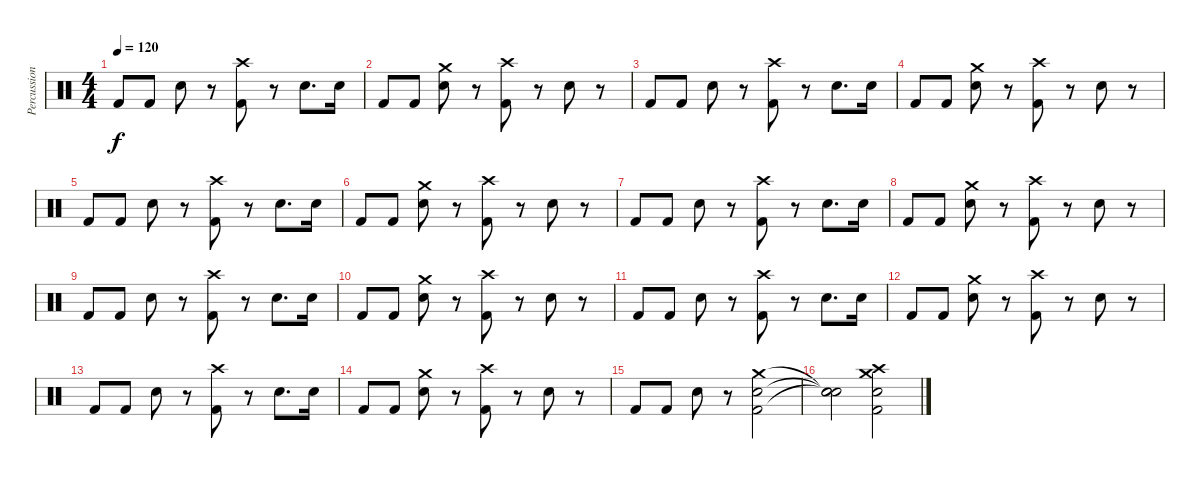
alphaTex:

\track ("Percussions" "Percussion") {instrument percussion}
\staff {score}
\articulation defaults
\ts (4 4)
\tempo 120
\clef neutral
\ks c "Kick (hit) 2".8{dy f} "Kick (hit) 2".8 "Electric Snare (hit)".8
r.8 ("Crash high (hit)" "Kick (hit) 2").8 r.8 "Electric Snare (hit)".8{d} "Electric Snare (hit)".16 |
"Kick (hit) 2".8 "Kick (hit) 2".8 ("Crash medium (hit)" "Electric Snare (hit)").8 r.8 ("Crash high (hit)" "Kick (hit) 2").8 r.8 "Electric Snare (hit)".8 r.8 |
"Kick (hit) 2".8 "Kick (hit) 2".8 "Electric Snare (hit)".8 r.8 ("Crash high (hit)" "Kick (hit) 2").8 r.8 "Electric Snare (hit)".8{d} "Electric Snare (hit)".16 |
"Kick (hit) 2".8 "Kick (hit) 2".8 ("Crash medium (hit)" "Electric Snare (hit)").8 r.8 ("Crash high (hit)" "Kick (hit) 2").8 r.8 "Electric Snare (hit)".8 r.8 |
"Kick (hit) 2".8 "Kick (hit) 2".8 "Electric Snare (hit)".8 r.8 ("Crash high (hit)" "Kick (hit) 2").8 r.8 "Electric Snare (hit)".8{d} "Electric Snare (hit)".16 |
"Kick (hit) 2".8 "Kick (hit) 2".8 ("Crash medium (hit)" "Electric Snare (hit)").8 r.8 ("Crash high (hit)" "Kick (hit) 2").8 r.8 "Electric Snare (hit)".8 r.8 |
"Kick (hit) 2".8 "Kick (hit) 2".8 "Electric Snare (hit)".8 r.8 ("Crash high (hit)" "Kick (hit) 2").8 r.8 "Electric Snare (hit)".8{d} "Electric Snare (hit)".16 |
"Kick (hit) 2".8 "Kick (hit) 2".8 ("Crash medium (hit)" "Electric Snare (hit)").8 r.8 ("Crash high (hit)" "Kick (hit) 2").8 r.8 "Electric Snare (hit)".8 r.8 |
"Kick (hit) 2".8 "Kick (hit) 2".8 "Electric Snare (hit)".8 r.8 ("Crash high (hit)" "Kick (hit) 2").8 r.8 "Electric Snare (hit)".8{d} "Electric Snare (hit)".16 |
"Kick (hit) 2".8 "Kick (hit) 2".8 ("Crash medium (hit)" "Electric Snare (hit)").8 r.8 ("Crash high (hit)" "Kick (hit) 2").8 r.8 "Electric Snare (hit)".8 r.8 |
"Kick (hit) 2".8 "Kick (hit) 2".8 "Electric Snare (hit)".8 r.8 ("Crash high (hit)" "Kick (hit) 2").8 r.8 "Electric Snare (hit)".8{d} "Electric Snare (hit)".16 |
"Kick (hit) 2".8 "Kick (hit) 2".8 ("Crash medium (hit)" "Electric Snare (hit)").8 r.8 ("Crash high (hit)" "Kick (hit) 2").8 r.8 "Electric Snare (hit)".8 r.8 |
"Kick (hit) 2".8 "Kick (hit) 2".8 "Electric Snare (hit)".8 r.8 ("Crash high (hit)" "Kick (hit) 2").8 r.8 "Electric Snare (hit)".8{d} "Electric Snare (hit)".16 |
"Kick (hit) 2".8 "Kick (hit) 2".8 ("Crash medium (hit)" "Electric Snare (hit)").8 r.8 ("Crash high (hit)" "Kick (hit) 2").8 r.8 "Electric Snare (hit)".8 r.8 |
"Kick (hit) 2".8 "Kick (hit) 2".8 "Electric Snare (hit)".8 r.8 ("Crash medium (hit)" "Electric Snare (hit)" "Kick (hit) 2").2 |
("Snare (hit)"{t} "Snare (hit)"{t} "Snare (hit)"{t}).2 ("Crash medium (hit)" "Crash high (hit)" "Electric Snare (hit)" "Kick (hit) 2").2
